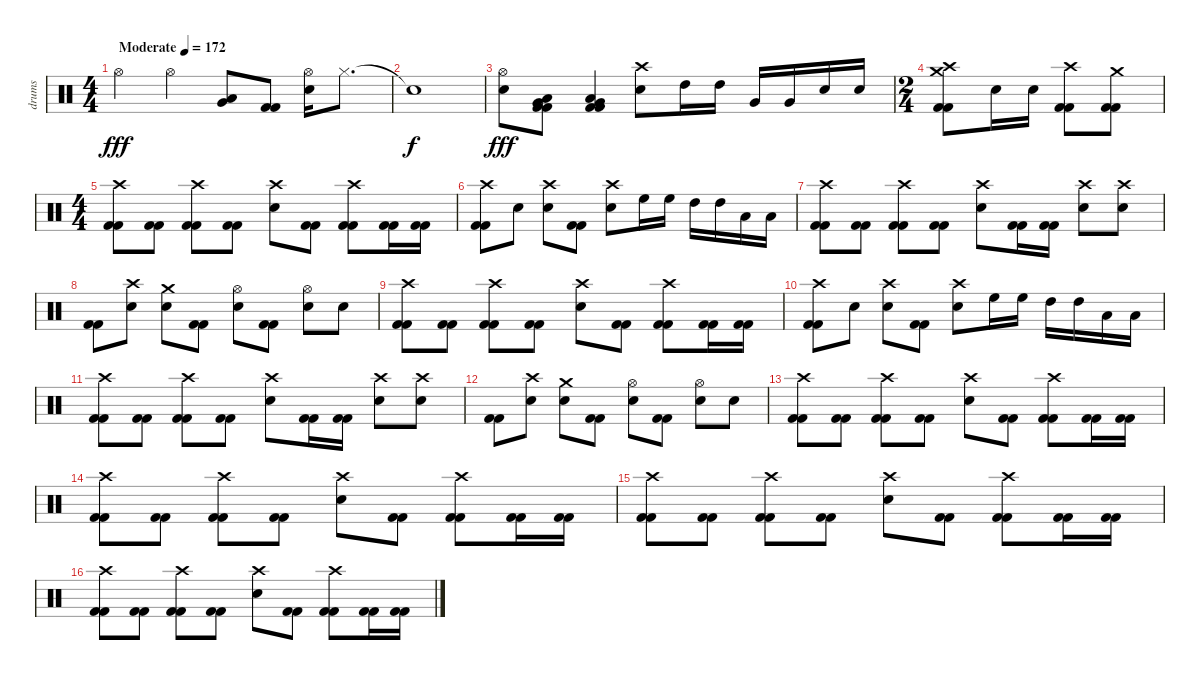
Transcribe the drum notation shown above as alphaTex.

\track ("drums" "drums") {instrument percussion}
\staff {score}
\articulation defaults
\ts (4 4)
\tempo (172 "Moderate")
\clef neutral
\ks c "Hi-Hat (open)".4{dy fff} "Hi-Hat (open)".4
("Very Low Tom (hit)" "Low Floor Tom (hit)").8 ("Kick (hit) 2" "Kick (hit) 2").8 ("Electric Snare (hit)" "Hi-Hat (open)").16 "Hi-Hat (closed)".8{d} |
"Snare (hit)"{t}.1{dy f} |
("Electric Snare (hit)" "Hi-Hat (open)").8{dy fff} ("Kick (hit) 2" "Kick (hit) 2" "Very Low Tom (hit)" "Low Floor Tom (hit)").8 ("Kick (hit) 2" "Kick (hit) 2" "Very Low Tom (hit)" "Low Floor Tom (hit)").4 ("Electric Snare (hit)" "Crash high (hit)").8 "High Tom (hit)".16 "High Tom (hit)".16 "Very Low Tom (hit)".16 "Very Low Tom (hit)".16 "Electric Snare (hit)".16 "Electric Snare (hit)".16 |
\ts (2 4)
("Kick (hit) 2" "Kick (hit) 2" "Crash high (hit)" "Crash medium (hit)").8 "Electric Snare (hit)".16 "Electric Snare (hit)".16 ("Kick (hit) 2" "Kick (hit) 2" "Crash high (hit)").8 ("Kick (hit) 2" "Kick (hit) 2" "Crash medium (hit)").8 |
\ts (4 4)
("Kick (hit) 2" "Kick (hit) 2" "Crash high (hit)").8 ("Kick (hit) 2" "Kick (hit) 2").8 ("Kick (hit) 2" "Kick (hit) 2" "Crash high (hit)").8 ("Kick (hit) 2" "Kick (hit) 2").8 ("Electric Snare (hit)" "Crash high (hit)").8 ("Kick (hit) 2" "Kick (hit) 2").8 ("Kick (hit) 2" "Kick (hit) 2" "Crash high (hit)").8 ("Kick (hit) 2" "Kick (hit) 2").16 ("Kick (hit) 2" "Kick (hit) 2").16 |
("Kick (hit) 2" "Kick (hit) 2" "Crash high (hit)").8 "Electric Snare (hit)".8 ("Electric Snare (hit)" "Crash high (hit)").8 ("Kick (hit) 2" "Kick (hit) 2").8 ("Electric Snare (hit)" "Crash high (hit)").8 "High Floor Tom (hit)".16 "High Floor Tom (hit)".16 "High Tom (hit)".16 "High Tom (hit)".16 "Low Floor Tom (hit)".16 "Low Floor Tom (hit)".16 |
("Kick (hit) 2" "Kick (hit) 2" "Crash high (hit)").8 ("Kick (hit) 2" "Kick (hit) 2").8 ("Kick (hit) 2" "Kick (hit) 2" "Crash high (hit)").8 ("Kick (hit) 2" "Kick (hit) 2").8 ("Electric Snare (hit)" "Crash high (hit)").8 ("Kick (hit) 2" "Kick (hit) 2").16 ("Kick (hit) 2" "Kick (hit) 2").16 ("Electric Snare (hit)" "Crash high (hit)").8 ("Electric Snare (hit)" "Crash high (hit)").8 |
("Kick (hit) 2" "Kick (hit) 2").8 ("Electric Snare (hit)" "Crash high (hit)").8 ("Electric Snare (hit)" "Crash medium (hit)").8 ("Kick (hit) 2" "Kick (hit) 2").8 ("Electric Snare (hit)" "Hi-Hat (open)").8 ("Kick (hit) 2" "Kick (hit) 2").8 ("Electric Snare (hit)" "Hi-Hat (open)").8 "Electric Snare (hit)".8 |
("Kick (hit) 2" "Kick (hit) 2" "Crash high (hit)").8 ("Kick (hit) 2" "Kick (hit) 2").8 ("Kick (hit) 2" "Kick (hit) 2" "Crash high (hit)").8 ("Kick (hit) 2" "Kick (hit) 2").8 ("Electric Snare (hit)" "Crash high (hit)").8 ("Kick (hit) 2" "Kick (hit) 2").8 ("Kick (hit) 2" "Kick (hit) 2" "Crash high (hit)").8 ("Kick (hit) 2" "Kick (hit) 2").16 ("Kick (hit) 2" "Kick (hit) 2").16 |
("Kick (hit) 2" "Kick (hit) 2" "Crash high (hit)").8 "Electric Snare (hit)".8 ("Electric Snare (hit)" "Crash high (hit)").8 ("Kick (hit) 2" "Kick (hit) 2").8 ("Electric Snare (hit)" "Crash high (hit)").8 "High Floor Tom (hit)".16 "High Floor Tom (hit)".16 "High Tom (hit)".16 "High Tom (hit)".16 "Low Floor Tom (hit)".16 "Low Floor Tom (hit)".16 |
("Kick (hit) 2" "Kick (hit) 2" "Crash high (hit)").8 ("Kick (hit) 2" "Kick (hit) 2").8 ("Kick (hit) 2" "Kick (hit) 2" "Crash high (hit)").8 ("Kick (hit) 2" "Kick (hit) 2").8 ("Electric Snare (hit)" "Crash high (hit)").8 ("Kick (hit) 2" "Kick (hit) 2").16 ("Kick (hit) 2" "Kick (hit) 2").16 ("Electric Snare (hit)" "Crash high (hit)").8 ("Electric Snare (hit)" "Crash high (hit)").8 |
("Kick (hit) 2" "Kick (hit) 2").8 ("Electric Snare (hit)" "Crash high (hit)").8 ("Electric Snare (hit)" "Crash medium (hit)").8 ("Kick (hit) 2" "Kick (hit) 2").8 ("Electric Snare (hit)" "Hi-Hat (open)").8 ("Kick (hit) 2" "Kick (hit) 2").8 ("Electric Snare (hit)" "Hi-Hat (open)").8 "Electric Snare (hit)".8 |
("Kick (hit) 2" "Kick (hit) 2" "Crash high (hit)").8 ("Kick (hit) 2" "Kick (hit) 2").8 ("Kick (hit) 2" "Kick (hit) 2" "Crash high (hit)").8 ("Kick (hit) 2" "Kick (hit) 2").8 ("Electric Snare (hit)" "Crash high (hit)").8 ("Kick (hit) 2" "Kick (hit) 2").8 ("Kick (hit) 2" "Kick (hit) 2" "Crash high (hit)").8 ("Kick (hit) 2" "Kick (hit) 2").16 ("Kick (hit) 2" "Kick (hit) 2").16 |
("Kick (hit) 2" "Kick (hit) 2" "Crash high (hit)").8 ("Kick (hit) 2" "Kick (hit) 2").8 ("Kick (hit) 2" "Kick (hit) 2" "Crash high (hit)").8 ("Kick (hit) 2" "Kick (hit) 2").8 ("Electric Snare (hit)" "Crash high (hit)").8 ("Kick (hit) 2" "Kick (hit) 2").8 ("Kick (hit) 2" "Kick (hit) 2" "Crash high (hit)").8 ("Kick (hit) 2" "Kick (hit) 2").16 ("Kick (hit) 2" "Kick (hit) 2").16 |
("Kick (hit) 2" "Kick (hit) 2" "Crash high (hit)").8 ("Kick (hit) 2" "Kick (hit) 2").8 ("Kick (hit) 2" "Kick (hit) 2" "Crash high (hit)").8 ("Kick (hit) 2" "Kick (hit) 2").8 ("Electric Snare (hit)" "Crash high (hit)").8 ("Kick (hit) 2" "Kick (hit) 2").8 ("Kick (hit) 2" "Kick (hit) 2" "Crash high (hit)").8 ("Kick (hit) 2" "Kick (hit) 2").16 ("Kick (hit) 2" "Kick (hit) 2").16 |
("Kick (hit) 2" "Kick (hit) 2" "Crash high (hit)").8 ("Kick (hit) 2" "Kick (hit) 2").8 ("Kick (hit) 2" "Kick (hit) 2" "Crash high (hit)").8 ("Kick (hit) 2" "Kick (hit) 2").8 ("Electric Snare (hit)" "Crash high (hit)").8 ("Kick (hit) 2" "Kick (hit) 2").8 ("Kick (hit) 2" "Kick (hit) 2" "Crash high (hit)").8 ("Kick (hit) 2" "Kick (hit) 2").16 ("Kick (hit) 2" "Kick (hit) 2").16
